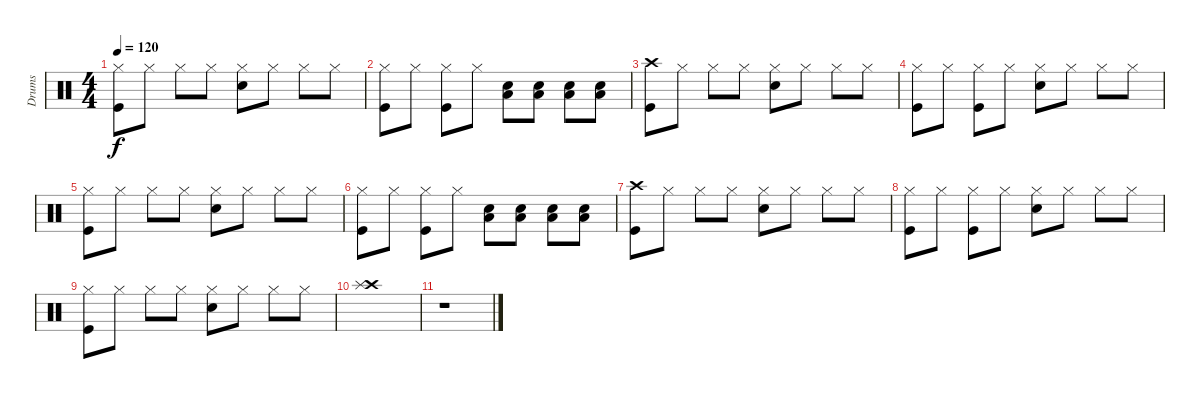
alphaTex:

\track ("Drums" "Drums") {instrument percussion}
\staff {score}
\articulation defaults
\ts (4 4)
\tempo 120
\clef neutral
\ks c
("Hi-Hat (closed)" "Kick (hit)").8{dy f} "Hi-Hat (closed)".8 "Hi-Hat (closed)".8 "Hi-Hat (closed)".8 ("Hi-Hat (closed)" "Snare (hit) 2").8 "Hi-Hat (closed)".8 "Hi-Hat (closed)".8 "Hi-Hat (closed)".8 |
("Hi-Hat (closed)" "Kick (hit)").8 "Hi-Hat (closed)".8 ("Hi-Hat (closed)" "Kick (hit)").8 "Hi-Hat (closed)".8 ("Low Tom (hit)" "Snare (hit) 2").8 ("Low Tom (hit)" "Snare (hit) 2").8 ("Low Tom (hit)" "Snare (hit) 2").8 ("Low Tom (hit)" "Snare (hit) 2").8 |
("Crash high (hit)" "Kick (hit)").8 "Hi-Hat (closed)".8 "Hi-Hat (closed)".8 "Hi-Hat (closed)".8 ("Hi-Hat (closed)" "Snare (hit) 2").8 "Hi-Hat (closed)".8 "Hi-Hat (closed)".8 "Hi-Hat (closed)".8 |
("Hi-Hat (closed)" "Kick (hit)").8 "Hi-Hat (closed)".8 ("Hi-Hat (closed)" "Kick (hit)").8 "Hi-Hat (closed)".8 ("Hi-Hat (closed)" "Snare (hit) 2").8 "Hi-Hat (closed)".8 "Hi-Hat (closed)".8 "Hi-Hat (closed)".8 |
("Hi-Hat (closed)" "Kick (hit)").8 "Hi-Hat (closed)".8 "Hi-Hat (closed)".8 "Hi-Hat (closed)".8 ("Hi-Hat (closed)" "Snare (hit) 2").8 "Hi-Hat (closed)".8 "Hi-Hat (closed)".8 "Hi-Hat (closed)".8 |
("Hi-Hat (closed)" "Kick (hit)").8 "Hi-Hat (closed)".8 ("Hi-Hat (closed)" "Kick (hit)").8 "Hi-Hat (closed)".8 ("Low Tom (hit)" "Snare (hit) 2").8 ("Low Tom (hit)" "Snare (hit) 2").8 ("Low Tom (hit)" "Snare (hit) 2").8 ("Low Tom (hit)" "Snare (hit) 2").8 |
("Crash high (hit)" "Kick (hit)").8 "Hi-Hat (closed)".8 "Hi-Hat (closed)".8 "Hi-Hat (closed)".8 ("Hi-Hat (closed)" "Snare (hit) 2").8 "Hi-Hat (closed)".8 "Hi-Hat (closed)".8 "Hi-Hat (closed)".8 |
("Hi-Hat (closed)" "Kick (hit)").8 "Hi-Hat (closed)".8 ("Hi-Hat (closed)" "Kick (hit)").8 "Hi-Hat (closed)".8 ("Hi-Hat (closed)" "Snare (hit) 2").8 "Hi-Hat (closed)".8 "Hi-Hat (closed)".8 "Hi-Hat (closed)".8 |
("Hi-Hat (closed)" "Kick (hit)").8 "Hi-Hat (closed)".8 "Hi-Hat (closed)".8 "Hi-Hat (closed)".8 ("Hi-Hat (closed)" "Snare (hit) 2").8 "Hi-Hat (closed)".8 "Hi-Hat (closed)".8 "Hi-Hat (closed)".8 |
("Crash high (hit)" "Splash (hit)").1 |
r.1
